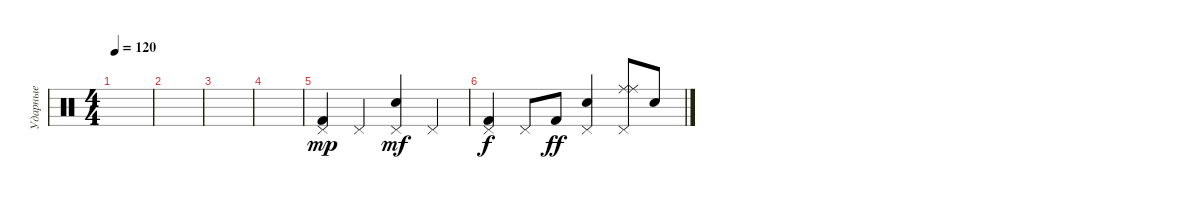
\track ("Ударные" "Ударные") {instrument percussion}
\staff {score}
\articulation defaults
\ts (4 4)
\tempo 120
\clef neutral
\ks c
|
|
|
|
("Pedal Hi-Hat (hit)" "Kick (hit) 2").4{dy mp} "Pedal Hi-Hat (hit)".4 ("Pedal Hi-Hat (hit)" "Snare (hit) 2").4{dy mf} "Pedal Hi-Hat (hit)".4 |
("Pedal Hi-Hat (hit)" "Kick (hit) 2").4{dy f} "Pedal Hi-Hat (hit)".8 "Kick (hit) 2".8{dy ff} ("Pedal Hi-Hat (hit)" "Snare (hit) 2").4 ("Ride (middle)" "Ride (middle)" "Pedal Hi-Hat (hit)").8 "Snare (hit) 2".8
